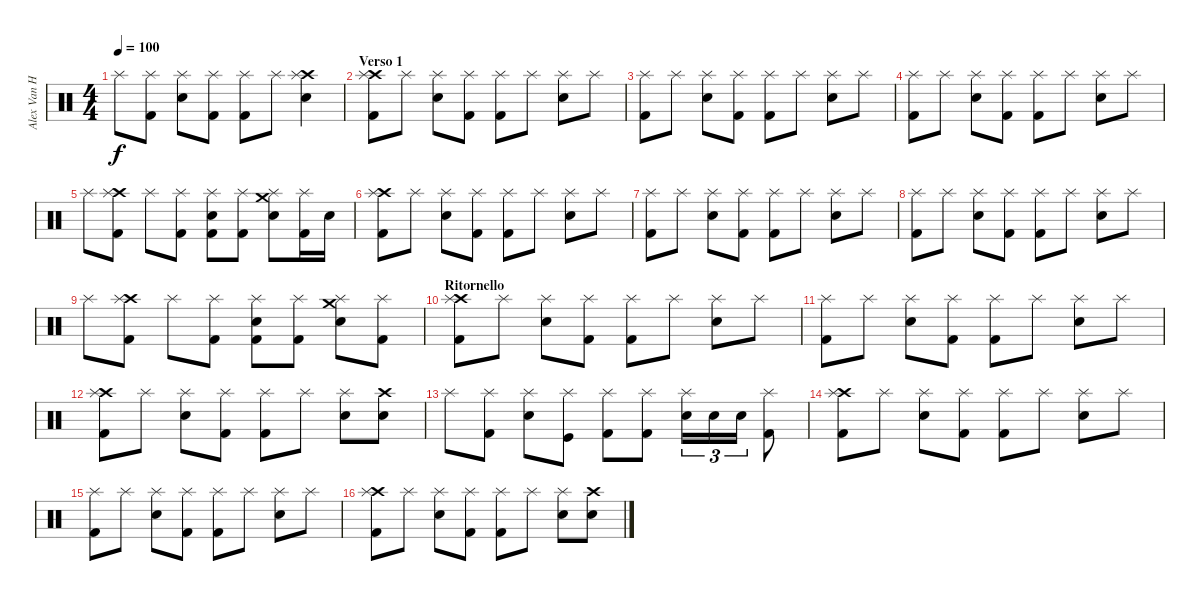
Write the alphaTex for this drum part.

\track ("Alex Van Halen" "Alex Van H") {instrument percussion}
\staff {score}
\articulation defaults
\ts (4 4)
\tempo 100
\clef neutral
\ks c "Splash (hit)".8{dy f}
("Kick (hit) 2" "Splash (hit)").8 ("Snare (hit) 2" "Splash (hit)").8 ("Kick (hit) 2" "Splash (hit)").8 ("Kick (hit) 2" "Splash (hit)").8 "Splash (hit)".8 ("Crash high (hit)" "Snare (hit) 2" "Splash (hit)").4 |
\section ("" "Verso 1")
("Crash high (hit)" "Kick (hit) 2" "Splash (hit)").8 "Splash (hit)".8 ("Snare (hit) 2" "Splash (hit)").8 ("Kick (hit) 2" "Splash (hit)").8 ("Kick (hit) 2" "Splash (hit)").8 "Splash (hit)".8 ("Snare (hit) 2" "Splash (hit)").8 "Splash (hit)".8 |
("Kick (hit) 2" "Splash (hit)").8 "Splash (hit)".8 ("Snare (hit) 2" "Splash (hit)").8 ("Kick (hit) 2" "Splash (hit)").8 ("Kick (hit) 2" "Splash (hit)").8 "Splash (hit)".8 ("Snare (hit) 2" "Splash (hit)").8 "Splash (hit)".8 |
("Kick (hit) 2" "Splash (hit)").8 "Splash (hit)".8 ("Snare (hit) 2" "Splash (hit)").8 ("Kick (hit) 2" "Splash (hit)").8 ("Kick (hit) 2" "Splash (hit)").8 "Splash (hit)".8 ("Snare (hit) 2" "Splash (hit)").8 "Splash (hit)".8 |
"Splash (hit)".8 ("Crash high (hit)" "Kick (hit) 2" "Splash (hit)").8 "Splash (hit)".8 ("Kick (hit) 2" "Splash (hit)").8 ("Snare (hit) 2" "Kick (hit) 2" "Splash (hit)").8 ("Kick (hit) 2" "Splash (hit)").8 ("Crash medium (hit)" "Snare (hit) 2" "Splash (hit)").8 ("Kick (hit) 2" "Splash (hit)").16 "Electric Snare (hit)".16 |
("Crash high (hit)" "Kick (hit) 2" "Splash (hit)").8 "Splash (hit)".8 ("Snare (hit) 2" "Splash (hit)").8 ("Kick (hit) 2" "Splash (hit)").8 ("Kick (hit) 2" "Splash (hit)").8 "Splash (hit)".8 ("Snare (hit) 2" "Splash (hit)").8 "Splash (hit)".8 |
("Kick (hit) 2" "Splash (hit)").8 "Splash (hit)".8 ("Snare (hit) 2" "Splash (hit)").8 ("Kick (hit) 2" "Splash (hit)").8 ("Kick (hit) 2" "Splash (hit)").8 "Splash (hit)".8 ("Snare (hit) 2" "Splash (hit)").8 "Splash (hit)".8 |
("Kick (hit) 2" "Splash (hit)").8 "Splash (hit)".8 ("Snare (hit) 2" "Splash (hit)").8 ("Kick (hit) 2" "Splash (hit)").8 ("Kick (hit) 2" "Splash (hit)").8 "Splash (hit)".8 ("Snare (hit) 2" "Splash (hit)").8 "Splash (hit)".8 |
"Splash (hit)".8 ("Crash high (hit)" "Kick (hit) 2" "Splash (hit)").8 "Splash (hit)".8 ("Kick (hit) 2" "Splash (hit)").8 ("Snare (hit) 2" "Kick (hit) 2" "Splash (hit)").8 ("Kick (hit) 2" "Splash (hit)").8 ("Crash medium (hit)" "Snare (hit) 2" "Splash (hit)").8 ("Kick (hit) 2" "Splash (hit)").8 |
\section ("" "Ritornello")
("Crash high (hit)" "Kick (hit) 2" "Splash (hit)").8 "Splash (hit)".8 ("Snare (hit) 2" "Splash (hit)").8 ("Kick (hit) 2" "Splash (hit)").8 ("Kick (hit) 2" "Splash (hit)").8 "Splash (hit)".8 ("Snare (hit) 2" "Splash (hit)").8 "Splash (hit)".8 |
("Kick (hit) 2" "Splash (hit)").8 "Splash (hit)".8 ("Snare (hit) 2" "Splash (hit)").8 ("Kick (hit) 2" "Splash (hit)").8 ("Kick (hit) 2" "Splash (hit)").8 "Splash (hit)".8 ("Snare (hit) 2" "Splash (hit)").8 "Splash (hit)".8 |
("Crash high (hit)" "Kick (hit) 2" "Splash (hit)").8 "Splash (hit)".8 ("Snare (hit) 2" "Splash (hit)").8 ("Kick (hit) 2" "Splash (hit)").8 ("Kick (hit) 2" "Splash (hit)").8 "Splash (hit)".8 ("Snare (hit) 2" "Splash (hit)").8 ("Crash high (hit)" "Electric Snare (hit)").8 |
"Splash (hit)".8 ("Kick (hit) 2" "Splash (hit)").8 ("Snare (hit) 2" "Splash (hit)").8 ("Kick (hit)" "Splash (hit)").8 ("Kick (hit) 2" "Splash (hit)").8 ("Kick (hit) 2" "Splash (hit)").8 ("Electric Snare (hit)" "Splash (hit)").16{tu (3 2)} "Electric Snare (hit)".16{tu (3 2)} "Snare (hit) 2".16{tu (3 2)} ("Kick (hit) 2" "Splash (hit)").8 |
("Crash high (hit)" "Kick (hit) 2" "Splash (hit)").8 "Splash (hit)".8 ("Snare (hit) 2" "Splash (hit)").8 ("Kick (hit) 2" "Splash (hit)").8 ("Kick (hit) 2" "Splash (hit)").8 "Splash (hit)".8 ("Snare (hit) 2" "Splash (hit)").8 "Splash (hit)".8 |
("Kick (hit) 2" "Splash (hit)").8 "Splash (hit)".8 ("Snare (hit) 2" "Splash (hit)").8 ("Kick (hit) 2" "Splash (hit)").8 ("Kick (hit) 2" "Splash (hit)").8 "Splash (hit)".8 ("Snare (hit) 2" "Splash (hit)").8 "Splash (hit)".8 |
("Crash high (hit)" "Kick (hit) 2" "Splash (hit)").8 "Splash (hit)".8 ("Snare (hit) 2" "Splash (hit)").8 ("Kick (hit) 2" "Splash (hit)").8 ("Kick (hit) 2" "Splash (hit)").8 "Splash (hit)".8 ("Snare (hit) 2" "Splash (hit)").8 ("Crash high (hit)" "Electric Snare (hit)").8
